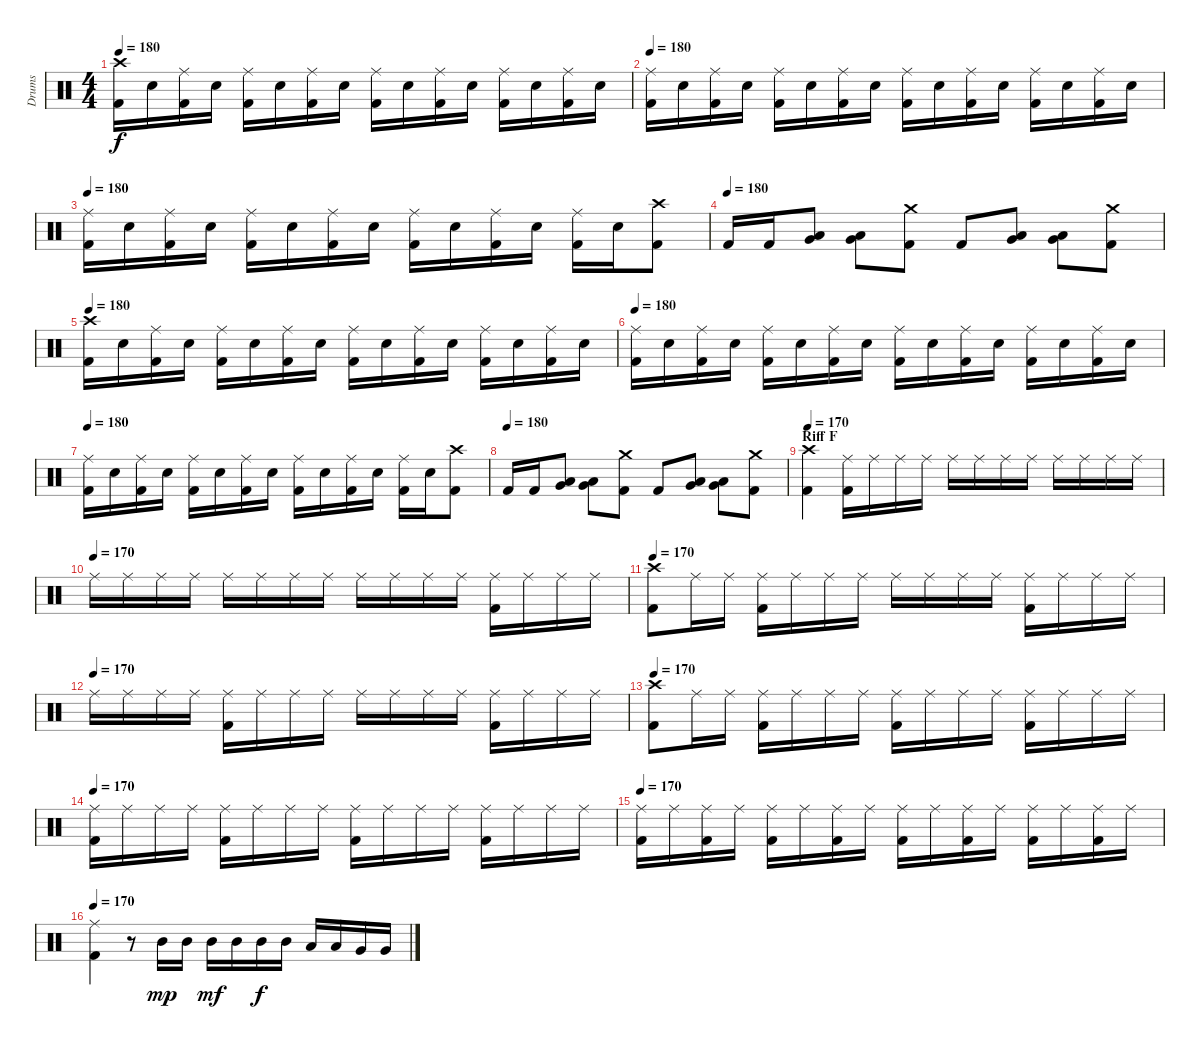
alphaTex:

\track ("Drums" "Drums") {instrument percussion}
\staff {score}
\articulation defaults
\ts (4 4)
\tempo 180
\clef neutral
\ks c
("Crash high (hit)" "Kick (hit) 2").16{dy f} "Electric Snare (hit)".16 ("Ride (middle)" "Kick (hit) 2").16 "Electric Snare (hit)".16 ("Ride (middle)" "Kick (hit) 2").16 "Electric Snare (hit)".16 ("Ride (middle)" "Kick (hit) 2").16 "Electric Snare (hit)".16 ("Ride (middle)" "Kick (hit) 2").16 "Electric Snare (hit)".16 ("Ride (middle)" "Kick (hit) 2").16 "Electric Snare (hit)".16 ("Ride (middle)" "Kick (hit) 2").16 "Electric Snare (hit)".16 ("Ride (middle)" "Kick (hit) 2").16 "Electric Snare (hit)".16 |
\tempo 180
("Ride (middle)" "Kick (hit) 2").16 "Electric Snare (hit)".16 ("Ride (middle)" "Kick (hit) 2").16 "Electric Snare (hit)".16 ("Ride (middle)" "Kick (hit) 2").16 "Electric Snare (hit)".16 ("Ride (middle)" "Kick (hit) 2").16 "Electric Snare (hit)".16 ("Ride (middle)" "Kick (hit) 2").16 "Electric Snare (hit)".16 ("Ride (middle)" "Kick (hit) 2").16 "Electric Snare (hit)".16 ("Ride (middle)" "Kick (hit) 2").16 "Electric Snare (hit)".16 ("Ride (middle)" "Kick (hit) 2").16 "Electric Snare (hit)".16 |
\tempo 180
("Ride (middle)" "Kick (hit) 2").16 "Electric Snare (hit)".16 ("Ride (middle)" "Kick (hit) 2").16 "Electric Snare (hit)".16 ("Ride (middle)" "Kick (hit) 2").16 "Electric Snare (hit)".16 ("Ride (middle)" "Kick (hit) 2").16 "Electric Snare (hit)".16 ("Ride (middle)" "Kick (hit) 2").16 "Electric Snare (hit)".16 ("Ride (middle)" "Kick (hit) 2").16 "Electric Snare (hit)".16 ("Ride (middle)" "Kick (hit) 2").16 "Electric Snare (hit)".16 ("Crash high (hit)" "Kick (hit) 2").8 |
\tempo (180)
"Kick (hit) 2".16 "Kick (hit) 2".16 ("Low Tom (hit)" "Very Low Tom (hit)").8 ("Low Tom (hit)" "Very Low Tom (hit)").8 ("Crash medium (hit)" "Kick (hit) 2").8 "Kick (hit) 2".8 ("Low Tom (hit)" "Very Low Tom (hit)").8 ("Low Tom (hit)" "Very Low Tom (hit)").8 ("Crash medium (hit)" "Kick (hit) 2").8 |
\tempo 180
("Crash high (hit)" "Kick (hit) 2").16 "Electric Snare (hit)".16 ("Ride (middle)" "Kick (hit) 2").16 "Electric Snare (hit)".16 ("Ride (middle)" "Kick (hit) 2").16 "Electric Snare (hit)".16 ("Ride (middle)" "Kick (hit) 2").16 "Electric Snare (hit)".16 ("Ride (middle)" "Kick (hit) 2").16 "Electric Snare (hit)".16 ("Ride (middle)" "Kick (hit) 2").16 "Electric Snare (hit)".16 ("Ride (middle)" "Kick (hit) 2").16 "Electric Snare (hit)".16 ("Ride (middle)" "Kick (hit) 2").16 "Electric Snare (hit)".16 |
\tempo 180
("Ride (middle)" "Kick (hit) 2").16 "Electric Snare (hit)".16 ("Ride (middle)" "Kick (hit) 2").16 "Electric Snare (hit)".16 ("Ride (middle)" "Kick (hit) 2").16 "Electric Snare (hit)".16 ("Ride (middle)" "Kick (hit) 2").16 "Electric Snare (hit)".16 ("Ride (middle)" "Kick (hit) 2").16 "Electric Snare (hit)".16 ("Ride (middle)" "Kick (hit) 2").16 "Electric Snare (hit)".16 ("Ride (middle)" "Kick (hit) 2").16 "Electric Snare (hit)".16 ("Ride (middle)" "Kick (hit) 2").16 "Electric Snare (hit)".16 |
\tempo 180
("Ride (middle)" "Kick (hit) 2").16 "Electric Snare (hit)".16 ("Ride (middle)" "Kick (hit) 2").16 "Electric Snare (hit)".16 ("Ride (middle)" "Kick (hit) 2").16 "Electric Snare (hit)".16 ("Ride (middle)" "Kick (hit) 2").16 "Electric Snare (hit)".16 ("Ride (middle)" "Kick (hit) 2").16 "Electric Snare (hit)".16 ("Ride (middle)" "Kick (hit) 2").16 "Electric Snare (hit)".16 ("Ride (middle)" "Kick (hit) 2").16 "Electric Snare (hit)".16 ("Crash high (hit)" "Kick (hit) 2").8 |
\tempo (180)
"Kick (hit) 2".16 "Kick (hit) 2".16 ("Low Tom (hit)" "Very Low Tom (hit)").8 ("Low Tom (hit)" "Very Low Tom (hit)").8 ("Crash medium (hit)" "Kick (hit) 2").8 "Kick (hit) 2".8 ("Low Tom (hit)" "Very Low Tom (hit)").8 ("Low Tom (hit)" "Very Low Tom (hit)").8 ("Crash medium (hit)" "Kick (hit) 2").8 |
\section ("" "Riff F")
\tempo 170
("Crash high (hit)" "Kick (hit) 2").4 ("Ride (middle)" "Kick (hit) 2").16 "Ride (middle)".16 "Ride (middle)".16 "Ride (middle)".16 "Ride (middle)".16 "Ride (middle)".16 "Ride (middle)".16 "Ride (middle)".16 "Ride (middle)".16 "Ride (middle)".16 "Ride (middle)".16 "Ride (middle)".16 |
\tempo (170)
"Ride (middle)".16 "Ride (middle)".16 "Ride (middle)".16 "Ride (middle)".16 "Ride (middle)".16 "Ride (middle)".16 "Ride (middle)".16 "Ride (middle)".16 "Ride (middle)".16 "Ride (middle)".16 "Ride (middle)".16 "Ride (middle)".16 ("Ride (middle)" "Kick (hit) 2").16 "Ride (middle)".16 "Ride (middle)".16 "Ride (middle)".16 |
\tempo 170
("Crash high (hit)" "Kick (hit) 2").8 "Ride (middle)".16 "Ride (middle)".16 ("Ride (middle)" "Kick (hit) 2").16 "Ride (middle)".16 "Ride (middle)".16 "Ride (middle)".16 "Ride (middle)".16 "Ride (middle)".16 "Ride (middle)".16 "Ride (middle)".16 ("Ride (middle)" "Kick (hit) 2").16 "Ride (middle)".16 "Ride (middle)".16 "Ride (middle)".16 |
\tempo (170)
"Ride (middle)".16 "Ride (middle)".16 "Ride (middle)".16 "Ride (middle)".16 ("Ride (middle)" "Kick (hit) 2").16 "Ride (middle)".16 "Ride (middle)".16 "Ride (middle)".16 "Ride (middle)".16 "Ride (middle)".16 "Ride (middle)".16 "Ride (middle)".16 ("Ride (middle)" "Kick (hit) 2").16 "Ride (middle)".16 "Ride (middle)".16 "Ride (middle)".16 |
\tempo 170
("Crash high (hit)" "Kick (hit) 2").8 "Ride (middle)".16 "Ride (middle)".16 ("Ride (middle)" "Kick (hit) 2").16 "Ride (middle)".16 "Ride (middle)".16 "Ride (middle)".16 ("Ride (middle)" "Kick (hit) 2").16 "Ride (middle)".16 "Ride (middle)".16 "Ride (middle)".16 ("Ride (middle)" "Kick (hit) 2").16 "Ride (middle)".16 "Ride (middle)".16 "Ride (middle)".16 |
\tempo 170
("Ride (middle)" "Kick (hit) 2").16 "Ride (middle)".16 "Ride (middle)".16 "Ride (middle)".16 ("Ride (middle)" "Kick (hit) 2").16 "Ride (middle)".16 "Ride (middle)".16 "Ride (middle)".16 ("Ride (middle)" "Kick (hit) 2").16 "Ride (middle)".16 "Ride (middle)".16 "Ride (middle)".16 ("Ride (middle)" "Kick (hit) 2").16 "Ride (middle)".16 "Ride (middle)".16 "Ride (middle)".16 |
\tempo 170
("Ride (middle)" "Kick (hit) 2").16 "Ride (middle)".16 ("Ride (middle)" "Kick (hit) 2").16 "Ride (middle)".16 ("Ride (middle)" "Kick (hit) 2").16 "Ride (middle)".16 ("Ride (middle)" "Kick (hit) 2").16 "Ride (middle)".16 ("Ride (middle)" "Kick (hit) 2").16 "Ride (middle)".16 ("Ride (middle)" "Kick (hit) 2").16 "Ride (middle)".16 ("Ride (middle)" "Kick (hit) 2").16 "Ride (middle)".16 ("Ride (middle)" "Kick (hit) 2").16 "Ride (middle)".16 |
\tempo 170
("Ride (middle)" "Kick (hit) 2").4 r.8 "Mid Tom (hit)".16{dy mp} "Mid Tom (hit)".16 "Mid Tom (hit)".16{dy mf} "Mid Tom (hit)".16 "Mid Tom (hit)".16{dy f} "Mid Tom (hit)".16 "Low Tom (hit)".16 "Low Tom (hit)".16 "Very Low Tom (hit)".16 "Very Low Tom (hit)".16
